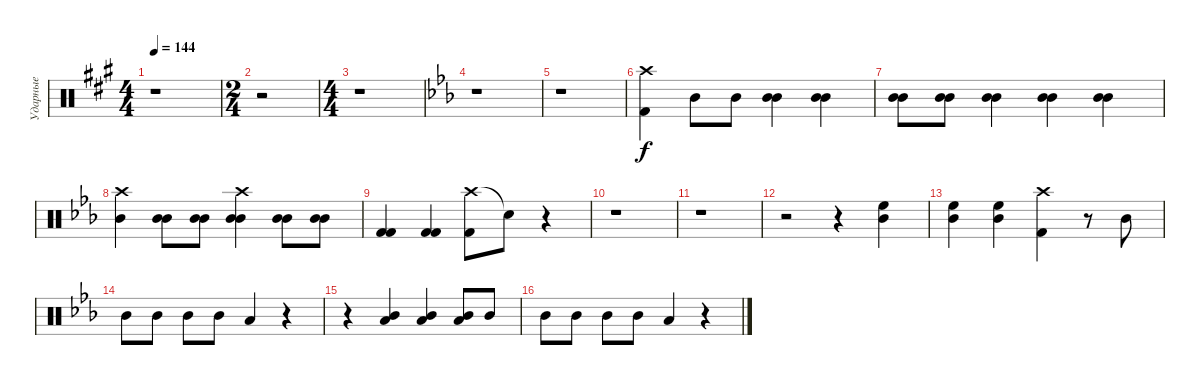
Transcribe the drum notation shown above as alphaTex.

\track ("Ударные" "Ударные") {instrument percussion}
\staff {score}
\articulation defaults
\ts (4 4)
\tempo 144
\clef neutral
\ks a
r.1{dy f} |
\ts (2 4)
r.2 |
\ts (4 4)
r.1 |
\ks eb
r.1 |
r.1 |
("Crash high (hit)" "Kick (hit) 2").4 "Mid Tom (hit)".8 "Mid Tom (hit)".8 ("Mid Tom (hit)" "Mid Tom (hit)").4 ("Mid Tom (hit)" "Mid Tom (hit)").4 |
("Mid Tom (hit)" "Mid Tom (hit)").8 ("Mid Tom (hit)" "Mid Tom (hit)").8 ("Mid Tom (hit)" "Mid Tom (hit)").4 ("Mid Tom (hit)" "Mid Tom (hit)").4 ("Mid Tom (hit)" "Mid Tom (hit)").4 |
("Crash high (hit)" "Mid Tom (hit)").4 ("Mid Tom (hit)" "Mid Tom (hit)").8 ("Mid Tom (hit)" "Mid Tom (hit)").8 ("Crash high (hit)" "Mid Tom (hit)" "Mid Tom (hit)").4 ("Mid Tom (hit)" "Mid Tom (hit)").8 ("Mid Tom (hit)" "Mid Tom (hit)").8 |
("Kick (hit) 2" "Kick (hit) 2").4 ("Kick (hit) 2" "Kick (hit) 2").4 ("Crash high (hit)" "Kick (hit) 2").8 "Snare (hit)"{t}.8 r.4 |
r.1 |
r.1 |
r.2 r.4 ("High Floor Tom (hit)" "Mid Tom (hit)").4 |
("High Floor Tom (hit)" "Mid Tom (hit)").4 ("High Floor Tom (hit)" "Mid Tom (hit)").4 ("Crash high (hit)" "Kick (hit) 2").4 r.8 "Mid Tom (hit)".8 |
"Mid Tom (hit)".8 "Mid Tom (hit)".8 "Mid Tom (hit)".8 "Mid Tom (hit)".8 "Low Tom (hit)".4 r.4 |
r.4 ("Mid Tom (hit)" "Low Tom (hit)").4 ("Mid Tom (hit)" "Low Tom (hit)").4 ("Mid Tom (hit)" "Low Tom (hit)").8 "Mid Tom (hit)".8 |
"Mid Tom (hit)".8 "Mid Tom (hit)".8 "Mid Tom (hit)".8 "Mid Tom (hit)".8 "Low Tom (hit)".4 r.4
